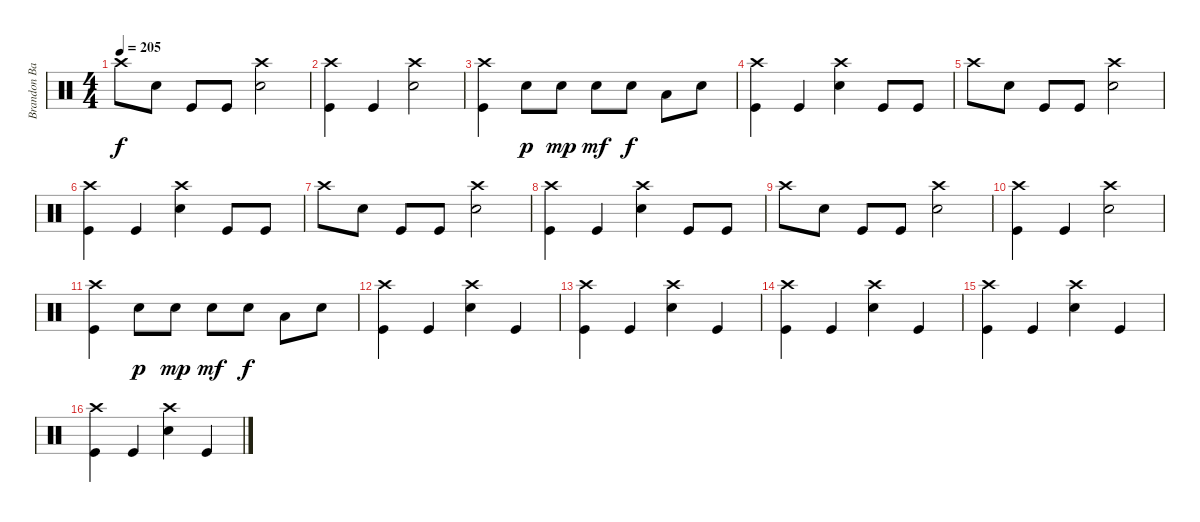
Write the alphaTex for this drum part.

\track ("Brandon Barnes" "Brandon Ba") {instrument percussion}
\staff {score}
\articulation defaults
\ts (4 4)
\tempo 205
\clef neutral
\ks c "Crash high (hit)".8{dy f} "Electric Snare (hit)".8 "Kick (hit)".8 "Kick (hit)".8
("Electric Snare (hit)" "Crash high (hit)").2 |
("Kick (hit)" "Crash high (hit)").4 "Kick (hit)".4 ("Electric Snare (hit)" "Crash high (hit)").2 |
("Kick (hit)" "Crash high (hit)").4 "Electric Snare (hit)".8{dy p} "Electric Snare (hit)".8{dy mp} "Electric Snare (hit)".8{dy mf} "Electric Snare (hit)".8{dy f} "Low Tom (hit)".8 "Electric Snare (hit)".8 |
("Kick (hit)" "Crash high (hit)").4 "Kick (hit)".4 ("Electric Snare (hit)" "Crash high (hit)").4 "Kick (hit)".8 "Kick (hit)".8 |
"Crash high (hit)".8 "Electric Snare (hit)".8 "Kick (hit)".8 "Kick (hit)".8 ("Electric Snare (hit)" "Crash high (hit)").2 |
("Kick (hit)" "Crash high (hit)").4 "Kick (hit)".4 ("Electric Snare (hit)" "Crash high (hit)").4 "Kick (hit)".8 "Kick (hit)".8 |
"Crash high (hit)".8 "Electric Snare (hit)".8 "Kick (hit)".8 "Kick (hit)".8 ("Electric Snare (hit)" "Crash high (hit)").2 |
("Kick (hit)" "Crash high (hit)").4 "Kick (hit)".4 ("Electric Snare (hit)" "Crash high (hit)").4 "Kick (hit)".8 "Kick (hit)".8 |
"Crash high (hit)".8 "Electric Snare (hit)".8 "Kick (hit)".8 "Kick (hit)".8 ("Electric Snare (hit)" "Crash high (hit)").2 |
("Kick (hit)" "Crash high (hit)").4 "Kick (hit)".4 ("Electric Snare (hit)" "Crash high (hit)").2 |
("Kick (hit)" "Crash high (hit)").4 "Electric Snare (hit)".8{dy p} "Electric Snare (hit)".8{dy mp} "Electric Snare (hit)".8{dy mf} "Electric Snare (hit)".8{dy f} "Low Tom (hit)".8 "Electric Snare (hit)".8 |
("Kick (hit)" "Crash high (hit)").4 "Kick (hit)".4 ("Electric Snare (hit)" "Crash high (hit)").4 "Kick (hit)".4 |
("Kick (hit)" "Crash high (hit)").4 "Kick (hit)".4 ("Electric Snare (hit)" "Crash high (hit)").4 "Kick (hit)".4 |
("Kick (hit)" "Crash high (hit)").4 "Kick (hit)".4 ("Electric Snare (hit)" "Crash high (hit)").4 "Kick (hit)".4 |
("Kick (hit)" "Crash high (hit)").4 "Kick (hit)".4 ("Electric Snare (hit)" "Crash high (hit)").4 "Kick (hit)".4 |
("Kick (hit)" "Crash high (hit)").4 "Kick (hit)".4 ("Electric Snare (hit)" "Crash high (hit)").4 "Kick (hit)".4
